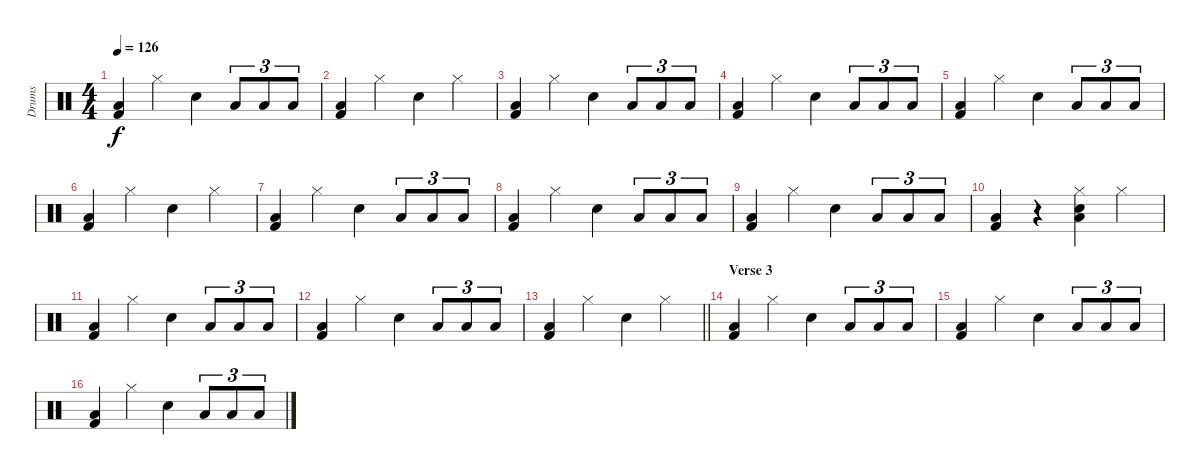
\track ("Drums" "Drums") {instrument percussion}
\staff {score}
\articulation defaults
\ts (4 4)
\tempo 126
\clef neutral
\ks c
("Low Floor Tom (hit)" "Kick (hit) 2").4{dy f} "Hi-Hat (closed)".4 "Electric Snare (hit)".4 "Low Floor Tom (hit)".8{tu (3 2)} "Low Floor Tom (hit)".8{tu (3 2)} "Low Floor Tom (hit)".8{tu (3 2)} |
("Low Floor Tom (hit)" "Kick (hit) 2").4 "Hi-Hat (closed)".4 "Electric Snare (hit)".4 "Hi-Hat (closed)".4 |
("Low Floor Tom (hit)" "Kick (hit) 2").4 "Hi-Hat (closed)".4 "Electric Snare (hit)".4 "Low Floor Tom (hit)".8{tu (3 2)} "Low Floor Tom (hit)".8{tu (3 2)} "Low Floor Tom (hit)".8{tu (3 2)} |
("Low Floor Tom (hit)" "Kick (hit) 2").4 "Hi-Hat (closed)".4 "Electric Snare (hit)".4 "Low Floor Tom (hit)".8{tu (3 2)} "Low Floor Tom (hit)".8{tu (3 2)} "Low Floor Tom (hit)".8{tu (3 2)} |
("Low Floor Tom (hit)" "Kick (hit) 2").4 "Hi-Hat (closed)".4 "Electric Snare (hit)".4 "Low Floor Tom (hit)".8{tu (3 2)} "Low Floor Tom (hit)".8{tu (3 2)} "Low Floor Tom (hit)".8{tu (3 2)} |
("Low Floor Tom (hit)" "Kick (hit) 2").4 "Hi-Hat (closed)".4 "Electric Snare (hit)".4 "Hi-Hat (closed)".4 |
("Low Floor Tom (hit)" "Kick (hit) 2").4 "Hi-Hat (closed)".4 "Electric Snare (hit)".4 "Low Floor Tom (hit)".8{tu (3 2)} "Low Floor Tom (hit)".8{tu (3 2)} "Low Floor Tom (hit)".8{tu (3 2)} |
("Low Floor Tom (hit)" "Kick (hit) 2").4 "Hi-Hat (closed)".4 "Electric Snare (hit)".4 "Low Floor Tom (hit)".8{tu (3 2)} "Low Floor Tom (hit)".8{tu (3 2)} "Low Floor Tom (hit)".8{tu (3 2)} |
("Low Floor Tom (hit)" "Kick (hit) 2").4 "Hi-Hat (closed)".4 "Electric Snare (hit)".4 "Low Floor Tom (hit)".8{tu (3 2)} "Low Floor Tom (hit)".8{tu (3 2)} "Low Floor Tom (hit)".8{tu (3 2)} |
("Low Floor Tom (hit)" "Kick (hit) 2").4 r.4 ("Hi-Hat (closed)" "Electric Snare (hit)" "Low Floor Tom (hit)").4 "Hi-Hat (closed)".4 |
("Low Floor Tom (hit)" "Kick (hit) 2").4 "Hi-Hat (closed)".4 "Electric Snare (hit)".4 "Low Floor Tom (hit)".8{tu (3 2)} "Low Floor Tom (hit)".8{tu (3 2)} "Low Floor Tom (hit)".8{tu (3 2)} |
("Low Floor Tom (hit)" "Kick (hit) 2").4 "Hi-Hat (closed)".4 "Electric Snare (hit)".4 "Low Floor Tom (hit)".8{tu (3 2)} "Low Floor Tom (hit)".8{tu (3 2)} "Low Floor Tom (hit)".8{tu (3 2)} |
\barLineRight lightlight
("Low Floor Tom (hit)" "Kick (hit) 2").4 "Hi-Hat (closed)".4 "Electric Snare (hit)".4 "Hi-Hat (closed)".4 |
\section ("" "Verse 3")
("Low Floor Tom (hit)" "Kick (hit) 2").4 "Hi-Hat (closed)".4 "Electric Snare (hit)".4 "Low Floor Tom (hit)".8{tu (3 2)} "Low Floor Tom (hit)".8{tu (3 2)} "Low Floor Tom (hit)".8{tu (3 2)} |
("Low Floor Tom (hit)" "Kick (hit) 2").4 "Hi-Hat (closed)".4 "Electric Snare (hit)".4 "Low Floor Tom (hit)".8{tu (3 2)} "Low Floor Tom (hit)".8{tu (3 2)} "Low Floor Tom (hit)".8{tu (3 2)} |
("Low Floor Tom (hit)" "Kick (hit) 2").4 "Hi-Hat (closed)".4 "Electric Snare (hit)".4 "Low Floor Tom (hit)".8{tu (3 2)} "Low Floor Tom (hit)".8{tu (3 2)} "Low Floor Tom (hit)".8{tu (3 2)}
